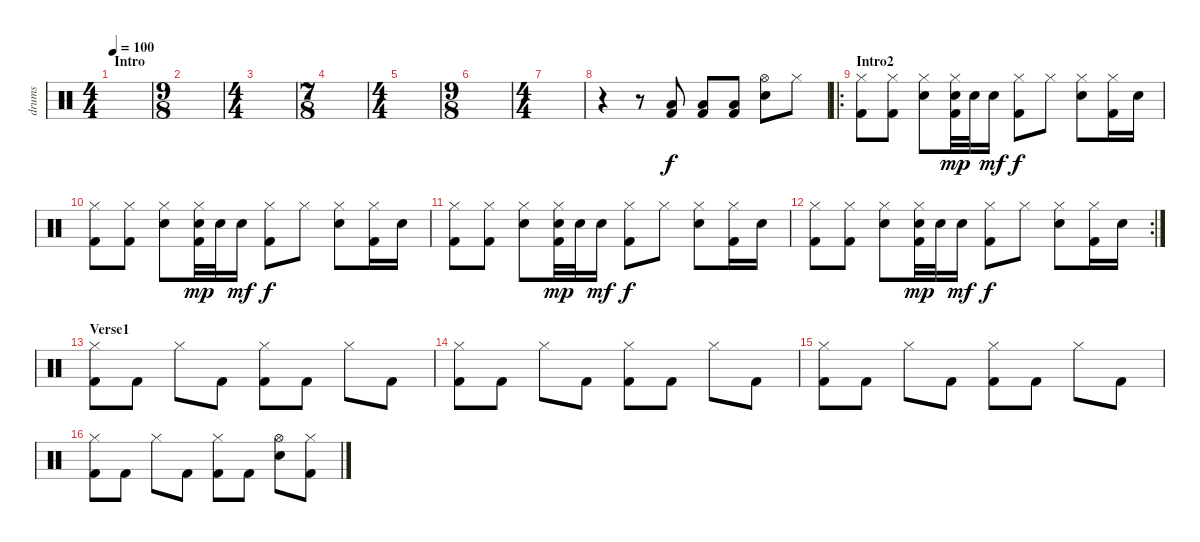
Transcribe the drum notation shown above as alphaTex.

\track ("drums" "drums") {instrument percussion}
\staff {score}
\articulation defaults
\ts (4 4)
\section ("" "Intro")
\tempo 100
\clef neutral
\ks c
|
\ts (9 8)
|
\ts (4 4)
|
\ts (7 8)
|
\ts (4 4)
|
\ts (9 8)
|
\ts (4 4)
|
r.4 r.8 ("Low Floor Tom (hit)" "Kick (hit) 2").8 ("Low Floor Tom (hit)" "Kick (hit) 2").8 ("Low Floor Tom (hit)" "Kick (hit) 2").8 ("Hi-Hat (open)" "Electric Snare (hit)").8 "Hi-Hat (closed)".8 |
\ro
\section ("" "Intro2")
("Hi-Hat (closed)" "Kick (hit) 2").8 ("Hi-Hat (closed)" "Kick (hit) 2").8 ("Hi-Hat (closed)" "Electric Snare (hit)").8 ("Hi-Hat (closed)" "Electric Snare (hit)" "Kick (hit) 2").32{dy mp} "Electric Snare (hit)".32 "Electric Snare (hit)".16{dy mf} ("Hi-Hat (closed)" "Kick (hit) 2").8{dy f} "Hi-Hat (closed)".8 ("Hi-Hat (closed)" "Electric Snare (hit)").8 ("Hi-Hat (closed)" "Kick (hit) 2").16 "Electric Snare (hit)".16 |
("Hi-Hat (closed)" "Kick (hit) 2").8 ("Hi-Hat (closed)" "Kick (hit) 2").8 ("Hi-Hat (closed)" "Electric Snare (hit)").8 ("Hi-Hat (closed)" "Electric Snare (hit)" "Kick (hit) 2").32{dy mp} "Electric Snare (hit)".32 "Electric Snare (hit)".16{dy mf} ("Hi-Hat (closed)" "Kick (hit) 2").8{dy f} "Hi-Hat (closed)".8 ("Hi-Hat (closed)" "Electric Snare (hit)").8 ("Hi-Hat (closed)" "Kick (hit) 2").16 "Electric Snare (hit)".16 |
("Hi-Hat (closed)" "Kick (hit) 2").8 ("Hi-Hat (closed)" "Kick (hit) 2").8 ("Hi-Hat (closed)" "Electric Snare (hit)").8 ("Hi-Hat (closed)" "Electric Snare (hit)" "Kick (hit) 2").32{dy mp} "Electric Snare (hit)".32 "Electric Snare (hit)".16{dy mf} ("Hi-Hat (closed)" "Kick (hit) 2").8{dy f} "Hi-Hat (closed)".8 ("Hi-Hat (closed)" "Electric Snare (hit)").8 ("Hi-Hat (closed)" "Kick (hit) 2").16 "Electric Snare (hit)".16 |
\rc 2
("Hi-Hat (closed)" "Kick (hit) 2").8 ("Hi-Hat (closed)" "Kick (hit) 2").8 ("Hi-Hat (closed)" "Electric Snare (hit)").8 ("Hi-Hat (closed)" "Electric Snare (hit)" "Kick (hit) 2").32{dy mp} "Electric Snare (hit)".32 "Electric Snare (hit)".16{dy mf} ("Hi-Hat (closed)" "Kick (hit) 2").8{dy f} "Hi-Hat (closed)".8 ("Hi-Hat (closed)" "Electric Snare (hit)").8 ("Hi-Hat (closed)" "Kick (hit) 2").16 "Electric Snare (hit)".16 |
\section ("" "Verse1")
("Hi-Hat (closed)" "Kick (hit) 2").8 "Kick (hit) 2".8 "Hi-Hat (closed)".8 "Kick (hit) 2".8 ("Hi-Hat (closed)" "Kick (hit) 2").8 "Kick (hit) 2".8 "Hi-Hat (closed)".8 "Kick (hit) 2".8 |
("Hi-Hat (closed)" "Kick (hit) 2").8 "Kick (hit) 2".8 "Hi-Hat (closed)".8 "Kick (hit) 2".8 ("Hi-Hat (closed)" "Kick (hit) 2").8 "Kick (hit) 2".8 "Hi-Hat (closed)".8 "Kick (hit) 2".8 |
("Hi-Hat (closed)" "Kick (hit) 2").8 "Kick (hit) 2".8 "Hi-Hat (closed)".8 "Kick (hit) 2".8 ("Hi-Hat (closed)" "Kick (hit) 2").8 "Kick (hit) 2".8 "Hi-Hat (closed)".8 "Kick (hit) 2".8 |
("Hi-Hat (closed)" "Kick (hit) 2").8 "Kick (hit) 2".8 "Hi-Hat (closed)".8 "Kick (hit) 2".8 ("Hi-Hat (closed)" "Kick (hit) 2").8 "Kick (hit) 2".8 ("Hi-Hat (open)" "Electric Snare (hit)").8 ("Hi-Hat (closed)" "Kick (hit) 2").8
